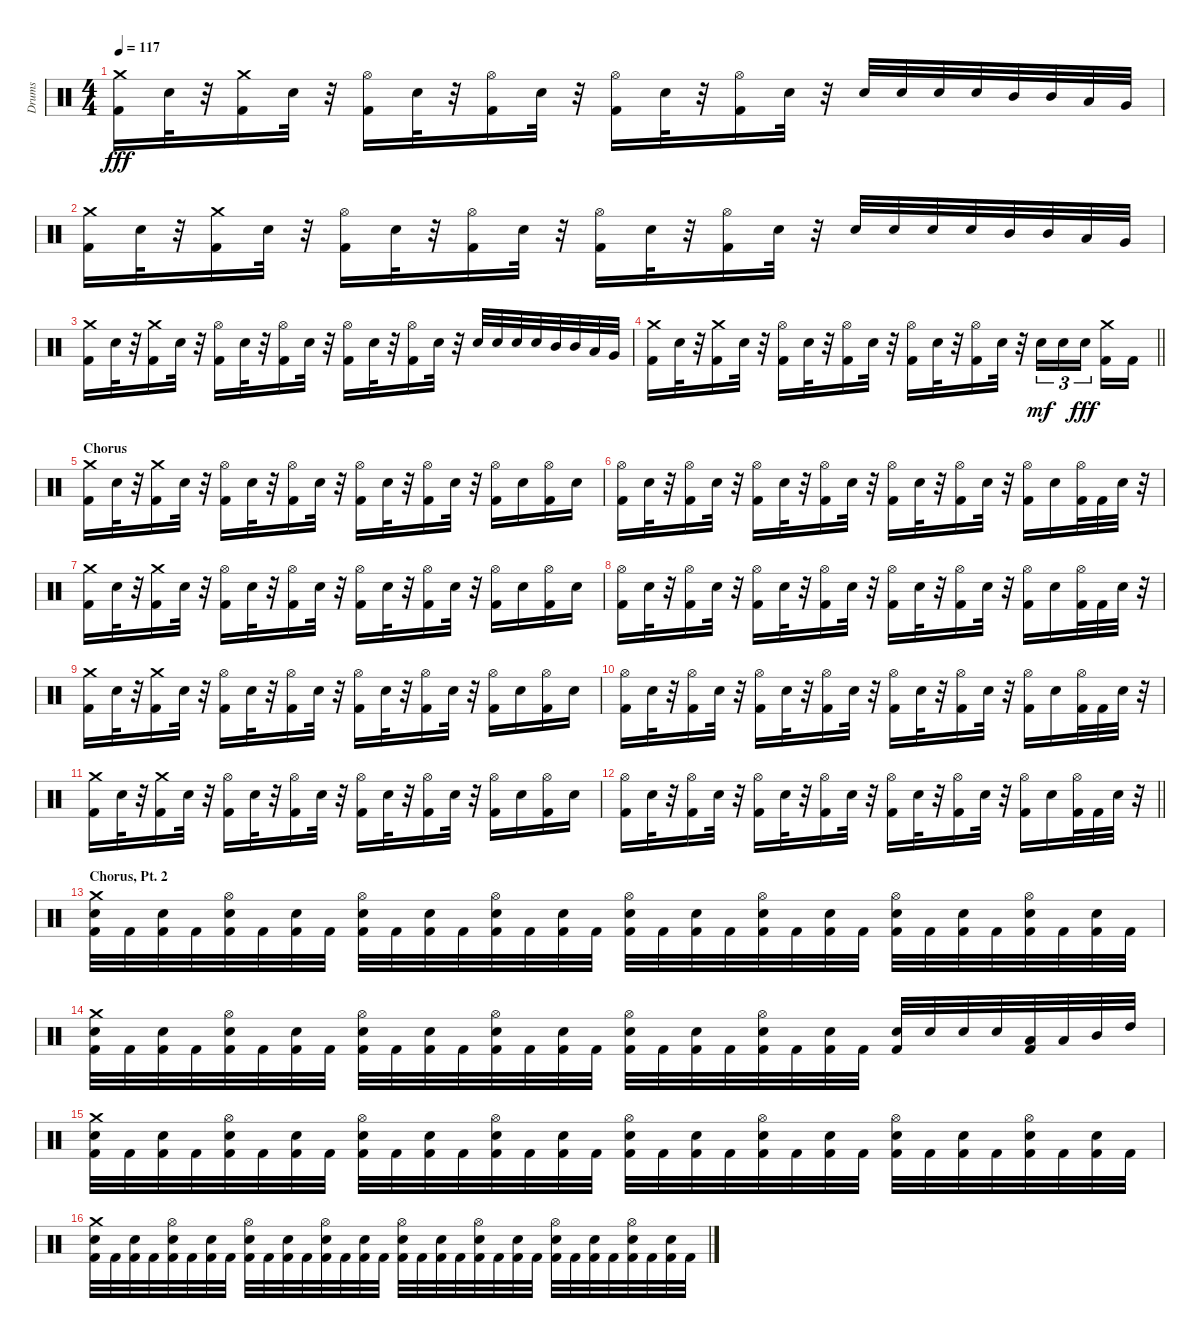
\track ("Drums" "Drums") {instrument percussion}
\staff {score}
\articulation defaults
\ts (4 4)
\tempo 117
\clef neutral
\ks c
("Kick (hit) 2" "Crash medium (hit)").16{dy fff} "Snare (hit) 2".32 r.32 ("Kick (hit) 2" "Crash medium (hit)").16 "Snare (hit) 2".32 r.32 ("Kick (hit) 2" "Hi-Hat (open)").16 "Snare (hit) 2".32 r.32 ("Kick (hit) 2" "Hi-Hat (open)").16 "Snare (hit) 2".32 r.32 ("Kick (hit) 2" "Hi-Hat (open)").16 "Snare (hit) 2".32 r.32 ("Kick (hit) 2" "Hi-Hat (open)").16 "Snare (hit) 2".32 r.32 "Snare (hit) 2".32 "Snare (hit) 2".32 "Snare (hit) 2".32 "Snare (hit) 2".32 "Mid Tom (hit)".32 "Mid Tom (hit)".32 "Low Tom (hit)".32 "Very Low Tom (hit)".32 |
("Kick (hit) 2" "Crash medium (hit)").16 "Snare (hit) 2".32 r.32 ("Kick (hit) 2" "Crash medium (hit)").16 "Snare (hit) 2".32 r.32 ("Kick (hit) 2" "Hi-Hat (open)").16 "Snare (hit) 2".32 r.32 ("Kick (hit) 2" "Hi-Hat (open)").16 "Snare (hit) 2".32 r.32 ("Kick (hit) 2" "Hi-Hat (open)").16 "Snare (hit) 2".32 r.32 ("Kick (hit) 2" "Hi-Hat (open)").16 "Snare (hit) 2".32 r.32 "Snare (hit) 2".32 "Snare (hit) 2".32 "Snare (hit) 2".32 "Snare (hit) 2".32 "Mid Tom (hit)".32 "Mid Tom (hit)".32 "Low Tom (hit)".32 "Very Low Tom (hit)".32 |
("Kick (hit) 2" "Crash medium (hit)").16 "Snare (hit) 2".32 r.32 ("Kick (hit) 2" "Crash medium (hit)").16 "Snare (hit) 2".32 r.32 ("Kick (hit) 2" "Hi-Hat (open)").16 "Snare (hit) 2".32 r.32 ("Kick (hit) 2" "Hi-Hat (open)").16 "Snare (hit) 2".32 r.32 ("Kick (hit) 2" "Hi-Hat (open)").16 "Snare (hit) 2".32 r.32 ("Kick (hit) 2" "Hi-Hat (open)").16 "Snare (hit) 2".32 r.32 "Snare (hit) 2".32 "Snare (hit) 2".32 "Snare (hit) 2".32 "Snare (hit) 2".32 "Mid Tom (hit)".32 "Mid Tom (hit)".32 "Low Tom (hit)".32 "Very Low Tom (hit)".32 |
\barLineRight lightlight
("Kick (hit) 2" "Crash medium (hit)").16 "Snare (hit) 2".32 r.32 ("Kick (hit) 2" "Crash medium (hit)").16 "Snare (hit) 2".32 r.32 ("Kick (hit) 2" "Hi-Hat (open)").16 "Snare (hit) 2".32 r.32 ("Kick (hit) 2" "Hi-Hat (open)").16 "Snare (hit) 2".32 r.32 ("Kick (hit) 2" "Hi-Hat (open)").16 "Snare (hit) 2".32 r.32 ("Kick (hit) 2" "Hi-Hat (open)").16 "Snare (hit) 2".32 r.32 "Snare (hit) 2".16{tu (3 2) dy mf} "Snare (hit) 2".16{tu (3 2)} "Snare (hit) 2".16{tu (3 2) dy fff beam splitsecondary} ("Kick (hit) 2" "Crash medium (hit)").16 "Kick (hit) 2".16 |
\section ("" "Chorus")
("Kick (hit) 2" "Crash medium (hit)").16 "Snare (hit) 2".32 r.32 ("Kick (hit) 2" "Crash medium (hit)").16 "Snare (hit) 2".32 r.32 ("Kick (hit) 2" "Hi-Hat (open)").16 "Snare (hit) 2".32 r.32 ("Kick (hit) 2" "Hi-Hat (open)").16 "Snare (hit) 2".32 r.32 ("Kick (hit) 2" "Hi-Hat (open)").16 "Snare (hit) 2".32 r.32 ("Kick (hit) 2" "Hi-Hat (open)").16 "Snare (hit) 2".32 r.32 ("Kick (hit) 2" "Hi-Hat (open)").16 "Snare (hit) 2".16 ("Kick (hit) 2" "Hi-Hat (open)").16 "Snare (hit) 2".16 |
("Hi-Hat (open)" "Kick (hit) 2").16 "Snare (hit) 2".32 r.32 ("Hi-Hat (open)" "Kick (hit) 2").16 "Snare (hit) 2".32 r.32 ("Kick (hit) 2" "Hi-Hat (open)").16 "Snare (hit) 2".32 r.32 ("Kick (hit) 2" "Hi-Hat (open)").16 "Snare (hit) 2".32 r.32 ("Kick (hit) 2" "Hi-Hat (open)").16 "Snare (hit) 2".32 r.32 ("Kick (hit) 2" "Hi-Hat (open)").16 "Snare (hit) 2".32 r.32 ("Kick (hit) 2" "Hi-Hat (open)").16 "Snare (hit) 2".16 ("Kick (hit) 2" "Hi-Hat (open)").32 "Kick (hit) 2".32 "Snare (hit) 2".32 r.32 |
("Kick (hit) 2" "Crash medium (hit)").16 "Snare (hit) 2".32 r.32 ("Kick (hit) 2" "Crash medium (hit)").16 "Snare (hit) 2".32 r.32 ("Kick (hit) 2" "Hi-Hat (open)").16 "Snare (hit) 2".32 r.32 ("Kick (hit) 2" "Hi-Hat (open)").16 "Snare (hit) 2".32 r.32 ("Kick (hit) 2" "Hi-Hat (open)").16 "Snare (hit) 2".32 r.32 ("Kick (hit) 2" "Hi-Hat (open)").16 "Snare (hit) 2".32 r.32 ("Kick (hit) 2" "Hi-Hat (open)").16 "Snare (hit) 2".16 ("Kick (hit) 2" "Hi-Hat (open)").16 "Snare (hit) 2".16 |
("Hi-Hat (open)" "Kick (hit) 2").16 "Snare (hit) 2".32 r.32 ("Hi-Hat (open)" "Kick (hit) 2").16 "Snare (hit) 2".32 r.32 ("Kick (hit) 2" "Hi-Hat (open)").16 "Snare (hit) 2".32 r.32 ("Kick (hit) 2" "Hi-Hat (open)").16 "Snare (hit) 2".32 r.32 ("Kick (hit) 2" "Hi-Hat (open)").16 "Snare (hit) 2".32 r.32 ("Kick (hit) 2" "Hi-Hat (open)").16 "Snare (hit) 2".32 r.32 ("Kick (hit) 2" "Hi-Hat (open)").16 "Snare (hit) 2".16 ("Kick (hit) 2" "Hi-Hat (open)").32 "Kick (hit) 2".32 "Snare (hit) 2".32 r.32 |
("Kick (hit) 2" "Crash medium (hit)").16 "Snare (hit) 2".32 r.32 ("Kick (hit) 2" "Crash medium (hit)").16 "Snare (hit) 2".32 r.32 ("Kick (hit) 2" "Hi-Hat (open)").16 "Snare (hit) 2".32 r.32 ("Kick (hit) 2" "Hi-Hat (open)").16 "Snare (hit) 2".32 r.32 ("Kick (hit) 2" "Hi-Hat (open)").16 "Snare (hit) 2".32 r.32 ("Kick (hit) 2" "Hi-Hat (open)").16 "Snare (hit) 2".32 r.32 ("Kick (hit) 2" "Hi-Hat (open)").16 "Snare (hit) 2".16 ("Kick (hit) 2" "Hi-Hat (open)").16 "Snare (hit) 2".16 |
("Hi-Hat (open)" "Kick (hit) 2").16 "Snare (hit) 2".32 r.32 ("Hi-Hat (open)" "Kick (hit) 2").16 "Snare (hit) 2".32 r.32 ("Kick (hit) 2" "Hi-Hat (open)").16 "Snare (hit) 2".32 r.32 ("Kick (hit) 2" "Hi-Hat (open)").16 "Snare (hit) 2".32 r.32 ("Kick (hit) 2" "Hi-Hat (open)").16 "Snare (hit) 2".32 r.32 ("Kick (hit) 2" "Hi-Hat (open)").16 "Snare (hit) 2".32 r.32 ("Kick (hit) 2" "Hi-Hat (open)").16 "Snare (hit) 2".16 ("Kick (hit) 2" "Hi-Hat (open)").32 "Kick (hit) 2".32 "Snare (hit) 2".32 r.32 |
("Kick (hit) 2" "Crash medium (hit)").16 "Snare (hit) 2".32 r.32 ("Kick (hit) 2" "Crash medium (hit)").16 "Snare (hit) 2".32 r.32 ("Kick (hit) 2" "Hi-Hat (open)").16 "Snare (hit) 2".32 r.32 ("Kick (hit) 2" "Hi-Hat (open)").16 "Snare (hit) 2".32 r.32 ("Kick (hit) 2" "Hi-Hat (open)").16 "Snare (hit) 2".32 r.32 ("Kick (hit) 2" "Hi-Hat (open)").16 "Snare (hit) 2".32 r.32 ("Kick (hit) 2" "Hi-Hat (open)").16 "Snare (hit) 2".16 ("Kick (hit) 2" "Hi-Hat (open)").16 "Snare (hit) 2".16 |
\barLineRight lightlight
("Hi-Hat (open)" "Kick (hit) 2").16 "Snare (hit) 2".32 r.32 ("Hi-Hat (open)" "Kick (hit) 2").16 "Snare (hit) 2".32 r.32 ("Kick (hit) 2" "Hi-Hat (open)").16 "Snare (hit) 2".32 r.32 ("Kick (hit) 2" "Hi-Hat (open)").16 "Snare (hit) 2".32 r.32 ("Kick (hit) 2" "Hi-Hat (open)").16 "Snare (hit) 2".32 r.32 ("Kick (hit) 2" "Hi-Hat (open)").16 "Snare (hit) 2".32 r.32 ("Kick (hit) 2" "Hi-Hat (open)").16 "Snare (hit) 2".16 ("Kick (hit) 2" "Hi-Hat (open)").32 "Kick (hit) 2".32 "Snare (hit) 2".32 r.32 |
\section ("" "Chorus, Pt. 2")
("Kick (hit) 2" "Snare (hit) 2" "Crash medium (hit)").32 "Kick (hit) 2".32 ("Kick (hit) 2" "Snare (hit) 2").32 "Kick (hit) 2".32 ("Kick (hit) 2" "Snare (hit) 2" "Hi-Hat (open)").32 "Kick (hit) 2".32 ("Kick (hit) 2" "Snare (hit) 2").32 "Kick (hit) 2".32 ("Kick (hit) 2" "Snare (hit) 2" "Hi-Hat (open)").32 "Kick (hit) 2".32 ("Kick (hit) 2" "Snare (hit) 2").32 "Kick (hit) 2".32 ("Kick (hit) 2" "Snare (hit) 2" "Hi-Hat (open)").32 "Kick (hit) 2".32 ("Kick (hit) 2" "Snare (hit) 2").32 "Kick (hit) 2".32 ("Kick (hit) 2" "Snare (hit) 2" "Hi-Hat (open)").32 "Kick (hit) 2".32 ("Kick (hit) 2" "Snare (hit) 2").32 "Kick (hit) 2".32 ("Kick (hit) 2" "Snare (hit) 2" "Hi-Hat (open)").32 "Kick (hit) 2".32 ("Kick (hit) 2" "Snare (hit) 2").32 "Kick (hit) 2".32 ("Kick (hit) 2" "Snare (hit) 2" "Hi-Hat (open)").32 "Kick (hit) 2".32 ("Kick (hit) 2" "Snare (hit) 2").32 "Kick (hit) 2".32 ("Kick (hit) 2" "Snare (hit) 2" "Hi-Hat (open)").32 "Kick (hit) 2".32 ("Kick (hit) 2" "Snare (hit) 2").32 "Kick (hit) 2".32 |
("Kick (hit) 2" "Snare (hit) 2" "Crash medium (hit)").32 "Kick (hit) 2".32 ("Kick (hit) 2" "Snare (hit) 2").32 "Kick (hit) 2".32 ("Kick (hit) 2" "Snare (hit) 2" "Hi-Hat (open)").32 "Kick (hit) 2".32 ("Kick (hit) 2" "Snare (hit) 2").32 "Kick (hit) 2".32 ("Kick (hit) 2" "Snare (hit) 2" "Hi-Hat (open)").32 "Kick (hit) 2".32 ("Kick (hit) 2" "Snare (hit) 2").32 "Kick (hit) 2".32 ("Kick (hit) 2" "Snare (hit) 2" "Hi-Hat (open)").32 "Kick (hit) 2".32 ("Kick (hit) 2" "Snare (hit) 2").32 "Kick (hit) 2".32 ("Kick (hit) 2" "Snare (hit) 2" "Hi-Hat (open)").32 "Kick (hit) 2".32 ("Kick (hit) 2" "Snare (hit) 2").32 "Kick (hit) 2".32 ("Kick (hit) 2" "Snare (hit) 2" "Hi-Hat (open)").32 "Kick (hit) 2".32 ("Kick (hit) 2" "Snare (hit) 2").32 "Kick (hit) 2".32 ("Kick (hit) 2" "Snare (hit) 2").32 "Snare (hit) 2".32 "Snare (hit) 2".32 "Snare (hit) 2".32 ("Kick (hit) 2" "Low Tom (hit)").32 "Low Tom (hit)".32 "Mid Tom (hit)".32 "High Tom (hit)".32 |
("Kick (hit) 2" "Snare (hit) 2" "Crash medium (hit)").32 "Kick (hit) 2".32 ("Kick (hit) 2" "Snare (hit) 2").32 "Kick (hit) 2".32 ("Kick (hit) 2" "Snare (hit) 2" "Hi-Hat (open)").32 "Kick (hit) 2".32 ("Kick (hit) 2" "Snare (hit) 2").32 "Kick (hit) 2".32 ("Kick (hit) 2" "Snare (hit) 2" "Hi-Hat (open)").32 "Kick (hit) 2".32 ("Kick (hit) 2" "Snare (hit) 2").32 "Kick (hit) 2".32 ("Kick (hit) 2" "Snare (hit) 2" "Hi-Hat (open)").32 "Kick (hit) 2".32 ("Kick (hit) 2" "Snare (hit) 2").32 "Kick (hit) 2".32 ("Kick (hit) 2" "Snare (hit) 2" "Hi-Hat (open)").32 "Kick (hit) 2".32 ("Kick (hit) 2" "Snare (hit) 2").32 "Kick (hit) 2".32 ("Kick (hit) 2" "Snare (hit) 2" "Hi-Hat (open)").32 "Kick (hit) 2".32 ("Kick (hit) 2" "Snare (hit) 2").32 "Kick (hit) 2".32 ("Kick (hit) 2" "Snare (hit) 2" "Hi-Hat (open)").32 "Kick (hit) 2".32 ("Kick (hit) 2" "Snare (hit) 2").32 "Kick (hit) 2".32 ("Kick (hit) 2" "Snare (hit) 2" "Hi-Hat (open)").32 "Kick (hit) 2".32 ("Kick (hit) 2" "Snare (hit) 2").32 "Kick (hit) 2".32 |
("Kick (hit) 2" "Snare (hit) 2" "Crash medium (hit)").32 "Kick (hit) 2".32 ("Kick (hit) 2" "Snare (hit) 2").32 "Kick (hit) 2".32 ("Kick (hit) 2" "Snare (hit) 2" "Hi-Hat (open)").32 "Kick (hit) 2".32 ("Kick (hit) 2" "Snare (hit) 2").32 "Kick (hit) 2".32 ("Kick (hit) 2" "Snare (hit) 2" "Hi-Hat (open)").32 "Kick (hit) 2".32 ("Kick (hit) 2" "Snare (hit) 2").32 "Kick (hit) 2".32 ("Kick (hit) 2" "Snare (hit) 2" "Hi-Hat (open)").32 "Kick (hit) 2".32 ("Kick (hit) 2" "Snare (hit) 2").32 "Kick (hit) 2".32 ("Kick (hit) 2" "Snare (hit) 2" "Hi-Hat (open)").32 "Kick (hit) 2".32 ("Kick (hit) 2" "Snare (hit) 2").32 "Kick (hit) 2".32 ("Kick (hit) 2" "Snare (hit) 2" "Hi-Hat (open)").32 "Kick (hit) 2".32 ("Kick (hit) 2" "Snare (hit) 2").32 "Kick (hit) 2".32 ("Kick (hit) 2" "Snare (hit) 2" "Hi-Hat (open)").32 "Kick (hit) 2".32 ("Kick (hit) 2" "Snare (hit) 2").32 "Kick (hit) 2".32 ("Kick (hit) 2" "Snare (hit) 2" "Hi-Hat (open)").32 "Kick (hit) 2".32 ("Kick (hit) 2" "Snare (hit) 2").32 "Kick (hit) 2".32
